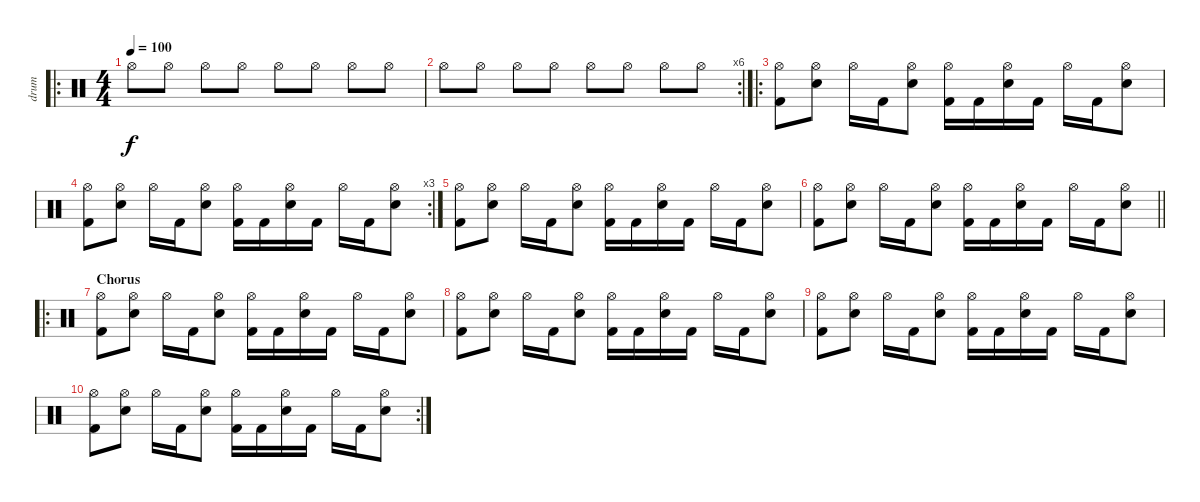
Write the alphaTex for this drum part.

\track ("drum" "drum") {instrument percussion}
\staff {score}
\articulation defaults
\ro
\ts (4 4)
\tempo 100
\clef neutral
\ks c "Hi-Hat (open)".8{dy f} "Hi-Hat (open)".8 "Hi-Hat (open)".8 "Hi-Hat (open)".8 "Hi-Hat (open)".8 "Hi-Hat (open)".8 "Hi-Hat (open)".8 "Hi-Hat (open)".8
|
\rc 6 "Hi-Hat (open)".8 "Hi-Hat (open)".8 "Hi-Hat (open)".8 "Hi-Hat (open)".8 "Hi-Hat (open)".8 "Hi-Hat (open)".8 "Hi-Hat (open)".8 "Hi-Hat (open)".8
|
\ro
("Hi-Hat (open)" "Kick (hit) 2").8 ("Hi-Hat (open)" "Electric Snare (hit)").8 "Hi-Hat (open)".16 "Kick (hit) 2".16 ("Hi-Hat (open)" "Electric Snare (hit)").8 ("Hi-Hat (open)" "Kick (hit) 2").16 "Kick (hit) 2".16 ("Hi-Hat (open)" "Electric Snare (hit)").16 "Kick (hit) 2".16 "Hi-Hat (open)".16 "Kick (hit) 2".16 ("Hi-Hat (open)" "Electric Snare (hit)").8 |
\rc 3
("Hi-Hat (open)" "Kick (hit) 2").8 ("Hi-Hat (open)" "Electric Snare (hit)").8 "Hi-Hat (open)".16 "Kick (hit) 2".16 ("Hi-Hat (open)" "Electric Snare (hit)").8 ("Hi-Hat (open)" "Kick (hit) 2").16 "Kick (hit) 2".16 ("Hi-Hat (open)" "Electric Snare (hit)").16 "Kick (hit) 2".16 "Hi-Hat (open)".16 "Kick (hit) 2".16 ("Hi-Hat (open)" "Electric Snare (hit)").8 |
("Hi-Hat (open)" "Kick (hit) 2").8 ("Hi-Hat (open)" "Electric Snare (hit)").8 "Hi-Hat (open)".16 "Kick (hit) 2".16 ("Hi-Hat (open)" "Electric Snare (hit)").8 ("Hi-Hat (open)" "Kick (hit) 2").16 "Kick (hit) 2".16 ("Hi-Hat (open)" "Electric Snare (hit)").16 "Kick (hit) 2".16 "Hi-Hat (open)".16 "Kick (hit) 2".16 ("Hi-Hat (open)" "Electric Snare (hit)").8 |
\barLineRight lightlight
("Hi-Hat (open)" "Kick (hit) 2").8 ("Hi-Hat (open)" "Electric Snare (hit)").8 "Hi-Hat (open)".16 "Kick (hit) 2".16 ("Hi-Hat (open)" "Electric Snare (hit)").8 ("Hi-Hat (open)" "Kick (hit) 2").16 "Kick (hit) 2".16 ("Hi-Hat (open)" "Electric Snare (hit)").16 "Kick (hit) 2".16 "Hi-Hat (open)".16 "Kick (hit) 2".16 ("Hi-Hat (open)" "Electric Snare (hit)").8 |
\ro
\section ("" "Chorus")
("Hi-Hat (open)" "Kick (hit) 2").8 ("Hi-Hat (open)" "Electric Snare (hit)").8 "Hi-Hat (open)".16 "Kick (hit) 2".16 ("Hi-Hat (open)" "Electric Snare (hit)").8 ("Hi-Hat (open)" "Kick (hit) 2").16 "Kick (hit) 2".16 ("Hi-Hat (open)" "Electric Snare (hit)").16 "Kick (hit) 2".16 "Hi-Hat (open)".16 "Kick (hit) 2".16 ("Hi-Hat (open)" "Electric Snare (hit)").8 |
("Hi-Hat (open)" "Kick (hit) 2").8 ("Hi-Hat (open)" "Electric Snare (hit)").8 "Hi-Hat (open)".16 "Kick (hit) 2".16 ("Hi-Hat (open)" "Electric Snare (hit)").8 ("Hi-Hat (open)" "Kick (hit) 2").16 "Kick (hit) 2".16 ("Hi-Hat (open)" "Electric Snare (hit)").16 "Kick (hit) 2".16 "Hi-Hat (open)".16 "Kick (hit) 2".16 ("Hi-Hat (open)" "Electric Snare (hit)").8 |
("Hi-Hat (open)" "Kick (hit) 2").8 ("Hi-Hat (open)" "Electric Snare (hit)").8 "Hi-Hat (open)".16 "Kick (hit) 2".16 ("Hi-Hat (open)" "Electric Snare (hit)").8 ("Hi-Hat (open)" "Kick (hit) 2").16 "Kick (hit) 2".16 ("Hi-Hat (open)" "Electric Snare (hit)").16 "Kick (hit) 2".16 "Hi-Hat (open)".16 "Kick (hit) 2".16 ("Hi-Hat (open)" "Electric Snare (hit)").8 |
\rc 2
("Hi-Hat (open)" "Kick (hit) 2").8 ("Hi-Hat (open)" "Electric Snare (hit)").8 "Hi-Hat (open)".16 "Kick (hit) 2".16 ("Hi-Hat (open)" "Electric Snare (hit)").8 ("Hi-Hat (open)" "Kick (hit) 2").16 "Kick (hit) 2".16 ("Hi-Hat (open)" "Electric Snare (hit)").16 "Kick (hit) 2".16 "Hi-Hat (open)".16 "Kick (hit) 2".16 ("Hi-Hat (open)" "Electric Snare (hit)").8
